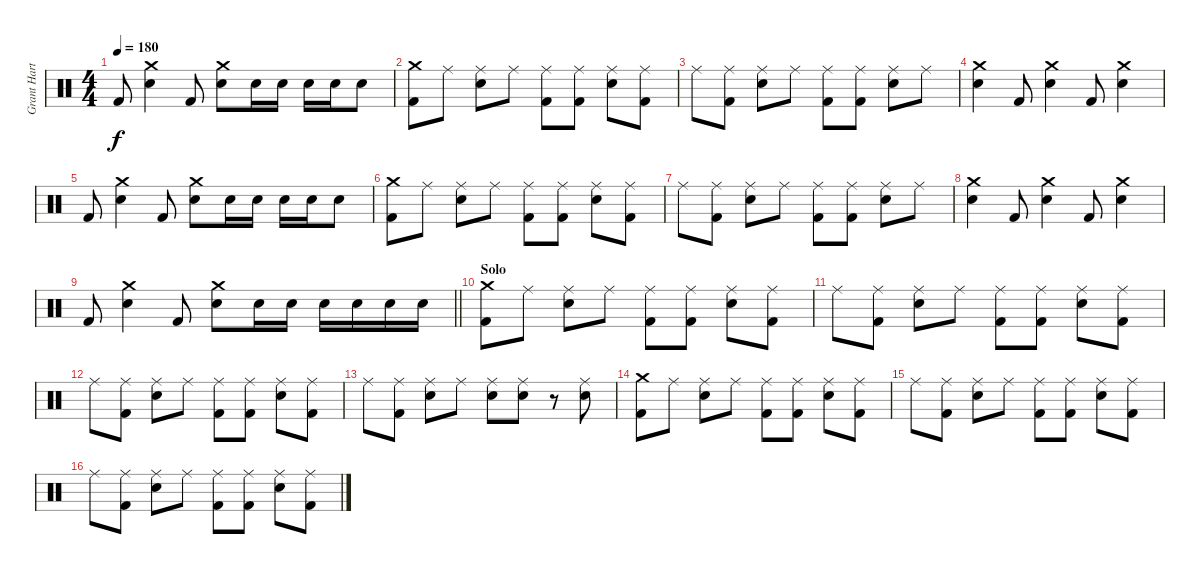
\track ("Grant Hart - Drums" "Grant Hart") {instrument percussion}
\staff {score}
\articulation defaults
\ts (4 4)
\tempo 180
\clef neutral
\ks c "Kick (hit) 2".8{dy f}
("Crash medium (hit)" "Electric Snare (hit)").4 "Kick (hit) 2".8 ("Crash medium (hit)" "Electric Snare (hit)").8 "Electric Snare (hit)".16 "Electric Snare (hit)".16 "Electric Snare (hit)".16 "Electric Snare (hit)".16 "Electric Snare (hit)".8 |
("Crash medium (hit)" "Kick (hit) 2").8 "Ride (middle)".8 ("Ride (middle)" "Electric Snare (hit)").8 "Ride (middle)".8 ("Ride (middle)" "Kick (hit) 2").8 ("Ride (middle)" "Kick (hit) 2").8 ("Ride (middle)" "Electric Snare (hit)").8 ("Ride (middle)" "Kick (hit) 2").8 |
"Ride (middle)".8 ("Ride (middle)" "Kick (hit) 2").8 ("Ride (middle)" "Electric Snare (hit)").8 "Ride (middle)".8 ("Ride (middle)" "Kick (hit) 2").8 ("Ride (middle)" "Kick (hit) 2").8 ("Ride (middle)" "Electric Snare (hit)").8 "Ride (middle)".8 |
("Crash medium (hit)" "Electric Snare (hit)").4 "Kick (hit) 2".8 ("Crash medium (hit)" "Electric Snare (hit)").4 "Kick (hit) 2".8 ("Crash medium (hit)" "Electric Snare (hit)").4 |
"Kick (hit) 2".8 ("Crash medium (hit)" "Electric Snare (hit)").4 "Kick (hit) 2".8 ("Crash medium (hit)" "Electric Snare (hit)").8 "Electric Snare (hit)".16 "Electric Snare (hit)".16 "Electric Snare (hit)".16 "Electric Snare (hit)".16 "Electric Snare (hit)".8 |
("Crash medium (hit)" "Kick (hit) 2").8 "Ride (middle)".8 ("Ride (middle)" "Electric Snare (hit)").8 "Ride (middle)".8 ("Ride (middle)" "Kick (hit) 2").8 ("Ride (middle)" "Kick (hit) 2").8 ("Ride (middle)" "Electric Snare (hit)").8 ("Ride (middle)" "Kick (hit) 2").8 |
"Ride (middle)".8 ("Ride (middle)" "Kick (hit) 2").8 ("Ride (middle)" "Electric Snare (hit)").8 "Ride (middle)".8 ("Ride (middle)" "Kick (hit) 2").8 ("Ride (middle)" "Kick (hit) 2").8 ("Ride (middle)" "Electric Snare (hit)").8 "Ride (middle)".8 |
("Crash medium (hit)" "Electric Snare (hit)").4 "Kick (hit) 2".8 ("Crash medium (hit)" "Electric Snare (hit)").4 "Kick (hit) 2".8 ("Crash medium (hit)" "Electric Snare (hit)").4 |
\barLineRight lightlight "Kick (hit) 2".8
("Crash medium (hit)" "Electric Snare (hit)").4 "Kick (hit) 2".8 ("Crash medium (hit)" "Electric Snare (hit)").8 "Electric Snare (hit)".16 "Electric Snare (hit)".16 "Electric Snare (hit)".16 "Electric Snare (hit)".16 "Electric Snare (hit)".16 "Electric Snare (hit)".16 |
\section ("" "Solo")
("Crash medium (hit)" "Kick (hit) 2").8 "Ride (middle)".8 ("Ride (middle)" "Electric Snare (hit)").8 "Ride (middle)".8 ("Ride (middle)" "Kick (hit) 2").8 ("Ride (middle)" "Kick (hit) 2").8 ("Ride (middle)" "Electric Snare (hit)").8 ("Ride (middle)" "Kick (hit) 2").8 |
"Ride (middle)".8 ("Ride (middle)" "Kick (hit) 2").8 ("Ride (middle)" "Electric Snare (hit)").8 "Ride (middle)".8 ("Ride (middle)" "Kick (hit) 2").8 ("Ride (middle)" "Kick (hit) 2").8 ("Ride (middle)" "Electric Snare (hit)").8 ("Ride (middle)" "Kick (hit) 2").8 |
"Ride (middle)".8 ("Ride (middle)" "Kick (hit) 2").8 ("Ride (middle)" "Electric Snare (hit)").8 "Ride (middle)".8 ("Ride (middle)" "Kick (hit) 2").8 ("Ride (middle)" "Kick (hit) 2").8 ("Ride (middle)" "Electric Snare (hit)").8 ("Ride (middle)" "Kick (hit) 2").8 |
"Ride (middle)".8 ("Ride (middle)" "Kick (hit) 2").8 ("Ride (middle)" "Electric Snare (hit)").8 "Ride (middle)".8 ("Ride (middle)" "Electric Snare (hit)").8 ("Ride (middle)" "Electric Snare (hit)").8 r.8 ("Ride (middle)" "Electric Snare (hit)").8 |
("Crash medium (hit)" "Kick (hit) 2").8 "Ride (middle)".8 ("Ride (middle)" "Electric Snare (hit)").8 "Ride (middle)".8 ("Ride (middle)" "Kick (hit) 2").8 ("Ride (middle)" "Kick (hit) 2").8 ("Ride (middle)" "Electric Snare (hit)").8 ("Ride (middle)" "Kick (hit) 2").8 |
"Ride (middle)".8 ("Ride (middle)" "Kick (hit) 2").8 ("Ride (middle)" "Electric Snare (hit)").8 "Ride (middle)".8 ("Ride (middle)" "Kick (hit) 2").8 ("Ride (middle)" "Kick (hit) 2").8 ("Ride (middle)" "Electric Snare (hit)").8 ("Ride (middle)" "Kick (hit) 2").8 |
"Ride (middle)".8 ("Ride (middle)" "Kick (hit) 2").8 ("Ride (middle)" "Electric Snare (hit)").8 "Ride (middle)".8 ("Ride (middle)" "Kick (hit) 2").8 ("Ride (middle)" "Kick (hit) 2").8 ("Ride (middle)" "Electric Snare (hit)").8 ("Ride (middle)" "Kick (hit) 2").8
